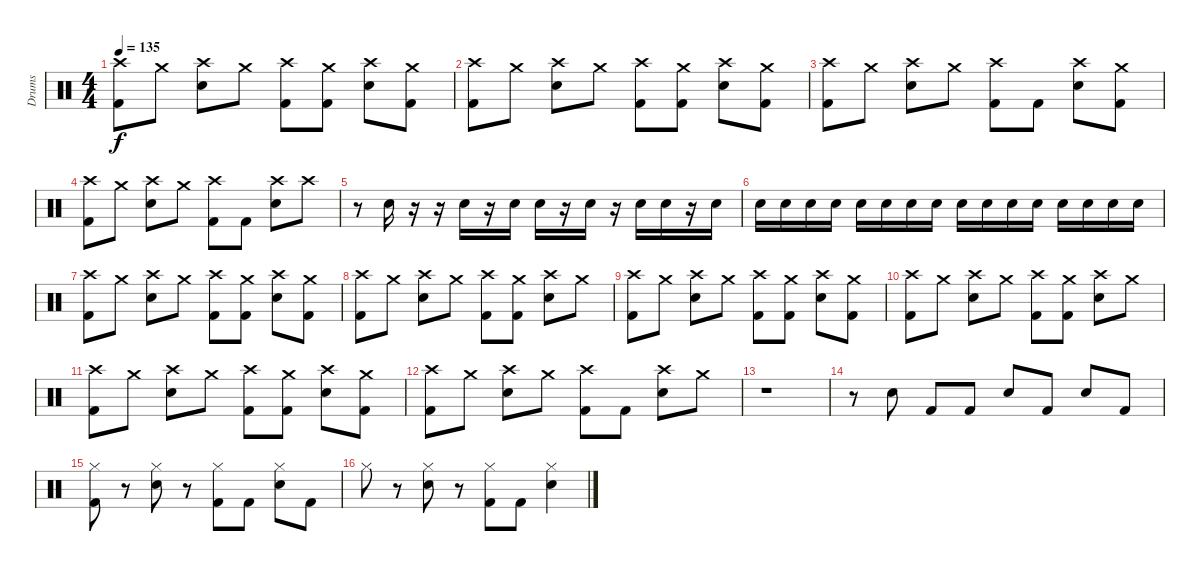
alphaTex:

\track ("Drums" "Drums") {instrument percussion}
\staff {score}
\articulation defaults
\ts (4 4)
\tempo 135
\clef neutral
\ks c
("Crash high (hit)" "Kick (hit) 2").8{dy f} "Crash medium (hit)".8 ("Crash high (hit)" "Snare (hit) 2").8 "Crash medium (hit)".8 ("Crash high (hit)" "Kick (hit) 2").8 ("Crash medium (hit)" "Kick (hit) 2").8 ("Crash high (hit)" "Snare (hit) 2").8 ("Crash medium (hit)" "Kick (hit) 2").8 |
("Crash high (hit)" "Kick (hit) 2").8 "Crash medium (hit)".8 ("Crash high (hit)" "Snare (hit) 2").8 "Crash medium (hit)".8 ("Crash high (hit)" "Kick (hit) 2").8 ("Crash medium (hit)" "Kick (hit) 2").8 ("Crash high (hit)" "Snare (hit) 2").8 ("Crash medium (hit)" "Kick (hit) 2").8 |
("Crash high (hit)" "Kick (hit) 2").8 "Crash medium (hit)".8 ("Crash high (hit)" "Snare (hit) 2").8 "Crash medium (hit)".8 ("Crash high (hit)" "Kick (hit) 2").8 "Kick (hit) 2".8 ("Crash high (hit)" "Snare (hit) 2").8 ("Crash medium (hit)" "Kick (hit) 2").8 |
("Crash high (hit)" "Kick (hit) 2").8 "Crash medium (hit)".8 ("Crash high (hit)" "Snare (hit) 2").8 "Crash medium (hit)".8 ("Crash high (hit)" "Kick (hit) 2").8 "Kick (hit) 2".8 ("Crash high (hit)" "Snare (hit) 2").8 "Crash high (hit)".8 |
r.8 "Snare (hit) 2".16 r.16 r.16 "Snare (hit) 2".16 r.16 "Snare (hit) 2".16 "Snare (hit) 2".16 r.16 "Snare (hit) 2".16 r.16 "Snare (hit) 2".16 "Snare (hit) 2".16 r.16 "Snare (hit) 2".16 |
"Snare (hit) 2".16 "Snare (hit) 2".16 "Snare (hit) 2".16 "Snare (hit) 2".16 "Snare (hit) 2".16 "Snare (hit) 2".16 "Snare (hit) 2".16 "Snare (hit) 2".16 "Snare (hit) 2".16 "Snare (hit) 2".16 "Snare (hit) 2".16 "Snare (hit) 2".16 "Snare (hit) 2".16 "Snare (hit) 2".16 "Snare (hit) 2".16 "Snare (hit) 2".16 |
("Crash high (hit)" "Kick (hit) 2").8 "Crash medium (hit)".8 ("Crash high (hit)" "Snare (hit) 2").8 "Crash medium (hit)".8 ("Crash high (hit)" "Kick (hit) 2").8 ("Crash medium (hit)" "Kick (hit) 2").8 ("Crash high (hit)" "Snare (hit) 2").8 ("Crash medium (hit)" "Kick (hit) 2").8 |
("Crash high (hit)" "Kick (hit) 2").8 "Crash medium (hit)".8 ("Crash high (hit)" "Snare (hit) 2").8 "Crash medium (hit)".8 ("Crash high (hit)" "Kick (hit) 2").8 ("Crash medium (hit)" "Kick (hit) 2").8 ("Crash high (hit)" "Snare (hit) 2").8 "Crash medium (hit)".8 |
("Crash high (hit)" "Kick (hit) 2").8 "Crash medium (hit)".8 ("Crash high (hit)" "Snare (hit) 2").8 "Crash medium (hit)".8 ("Crash high (hit)" "Kick (hit) 2").8 ("Crash medium (hit)" "Kick (hit) 2").8 ("Crash high (hit)" "Snare (hit) 2").8 ("Crash medium (hit)" "Kick (hit) 2").8 |
("Crash high (hit)" "Kick (hit) 2").8 "Crash medium (hit)".8 ("Crash high (hit)" "Snare (hit) 2").8 "Crash medium (hit)".8 ("Crash high (hit)" "Kick (hit) 2").8 ("Crash medium (hit)" "Kick (hit) 2").8 ("Crash high (hit)" "Snare (hit) 2").8 "Crash medium (hit)".8 |
("Crash high (hit)" "Kick (hit) 2").8 "Crash medium (hit)".8 ("Crash high (hit)" "Snare (hit) 2").8 "Crash medium (hit)".8 ("Crash high (hit)" "Kick (hit) 2").8 ("Crash medium (hit)" "Kick (hit) 2").8 ("Crash high (hit)" "Snare (hit) 2").8 ("Crash medium (hit)" "Kick (hit) 2").8 |
("Crash high (hit)" "Kick (hit) 2").8 "Crash medium (hit)".8 ("Crash high (hit)" "Snare (hit) 2").8 "Crash medium (hit)".8 ("Crash high (hit)" "Kick (hit) 2").8 "Kick (hit) 2".8 ("Crash high (hit)" "Snare (hit) 2").8 "Crash medium (hit)".8 |
r.1 |
r.8 "Snare (hit) 2".8 "Kick (hit) 2".8 "Kick (hit) 2".8 "Snare (hit) 2".8 "Kick (hit) 2".8 "Snare (hit) 2".8 "Kick (hit) 2".8 |
("Hi-Hat (closed)" "Kick (hit) 2").8 r.8 ("Hi-Hat (closed)" "Snare (hit) 2").8 r.8 ("Hi-Hat (closed)" "Kick (hit) 2").8 "Kick (hit) 2".8 ("Hi-Hat (closed)" "Snare (hit) 2").8 "Kick (hit) 2".8 |
"Hi-Hat (closed)".8 r.8 ("Hi-Hat (closed)" "Snare (hit) 2").8 r.8 ("Hi-Hat (closed)" "Kick (hit) 2").8 "Kick (hit) 2".8 ("Hi-Hat (closed)" "Snare (hit) 2").4
